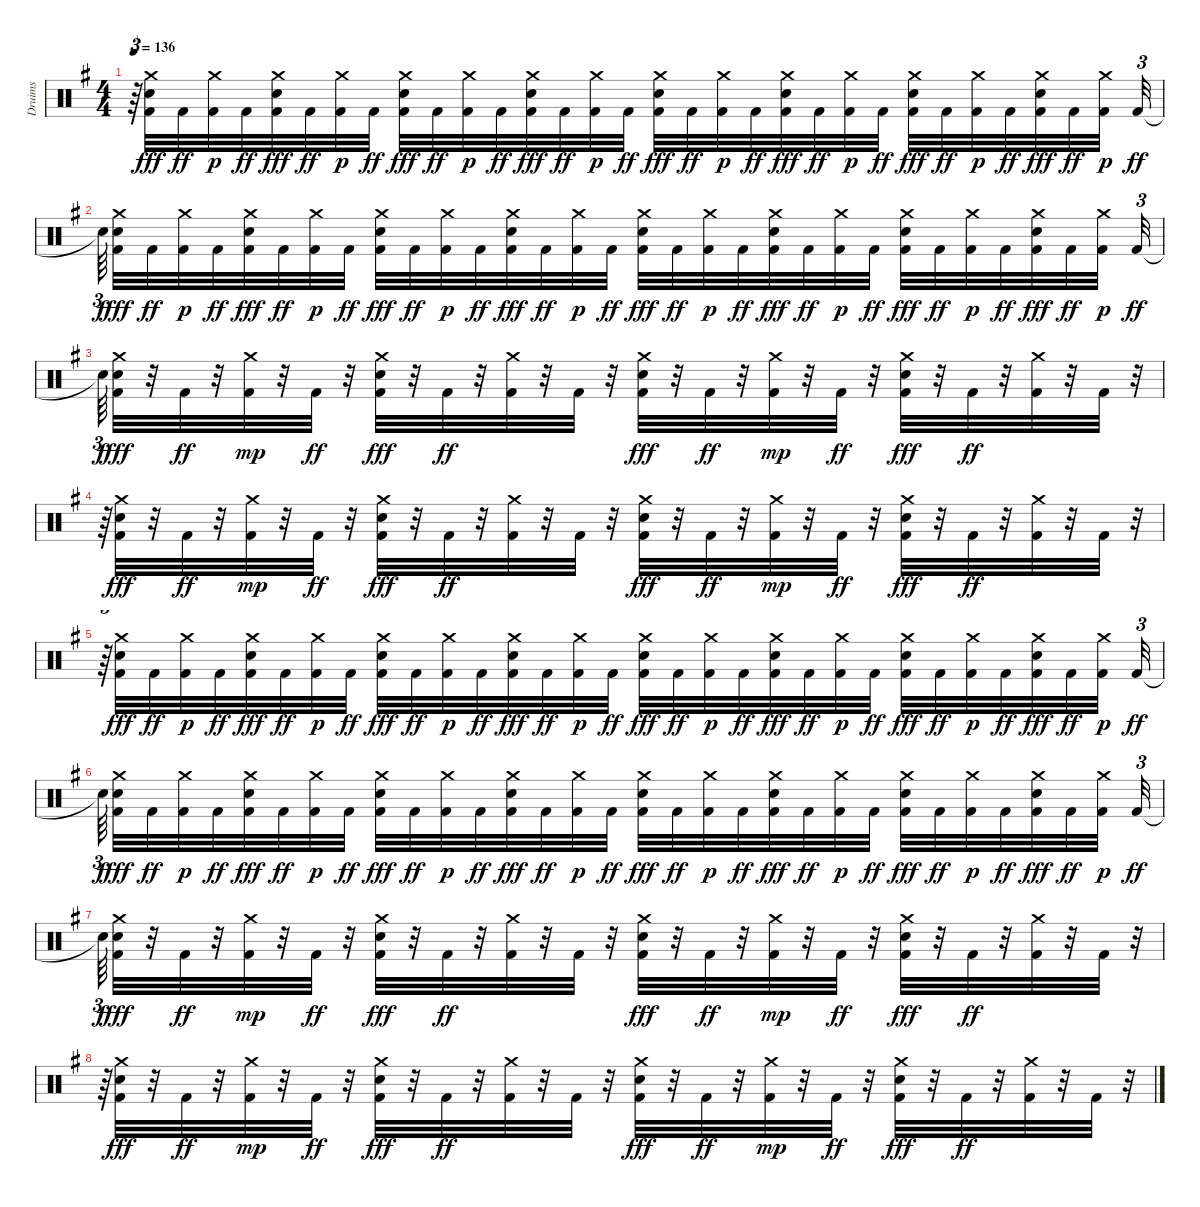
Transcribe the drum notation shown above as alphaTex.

\track ("Druims" "Druims") {instrument percussion}
\staff {score}
\articulation defaults
\ts (4 4)
\tempo 136
\clef neutral
\ks eminor
r.64{tu (3 2) dy fff} ("Kick (hit) 2" "Crash medium (hit)" "Snare (hit) 2").32 "Kick (hit) 2".32{dy ff} ("Kick (hit) 2" "Crash medium (hit)").32{dy p} "Kick (hit) 2".32{dy ff} ("Kick (hit) 2" "Snare (hit) 2" "Crash medium (hit)").32{dy fff} "Kick (hit) 2".32{dy ff} ("Kick (hit) 2" "Crash medium (hit)").32{dy p} "Kick (hit) 2".32{dy ff} ("Kick (hit) 2" "Snare (hit) 2" "Crash medium (hit)").32{dy fff} "Kick (hit) 2".32{dy ff} ("Kick (hit) 2" "Crash medium (hit)").32{dy p} "Kick (hit) 2".32{dy ff} ("Kick (hit) 2" "Snare (hit) 2" "Crash medium (hit)").32{dy fff} "Kick (hit) 2".32{dy ff} ("Kick (hit) 2" "Crash medium (hit)").32{dy p} "Kick (hit) 2".32{dy ff} ("Kick (hit) 2" "Snare (hit) 2" "Crash medium (hit)").32{dy fff} "Kick (hit) 2".32{dy ff} ("Kick (hit) 2" "Crash medium (hit)").32{dy p} "Kick (hit) 2".32{dy ff} ("Kick (hit) 2" "Crash medium (hit)" "Snare (hit) 2").32{dy fff} "Kick (hit) 2".32{dy ff} ("Kick (hit) 2" "Crash medium (hit)").32{dy p} "Kick (hit) 2".32{dy ff} ("Kick (hit) 2" "Snare (hit) 2" "Crash medium (hit)").32{dy fff} "Kick (hit) 2".32{dy ff} ("Kick (hit) 2" "Crash medium (hit)").32{dy p} "Kick (hit) 2".32{dy ff} ("Kick (hit) 2" "Snare (hit) 2" "Crash medium (hit)").32{dy fff} "Kick (hit) 2".32{dy ff} ("Kick (hit) 2" "Crash medium (hit)").32{dy p beam splitsecondary} "Kick (hit) 2".32{tu (3 2) dy ff} |
"Snare (hit)"{t}.64{tu (3 2) dy f beam splitsecondary} ("Kick (hit) 2" "Snare (hit) 2" "Crash medium (hit)").32{dy fff} "Kick (hit) 2".32{dy ff} ("Kick (hit) 2" "Crash medium (hit)").32{dy p} "Kick (hit) 2".32{dy ff} ("Kick (hit) 2" "Snare (hit) 2" "Crash medium (hit)").32{dy fff} "Kick (hit) 2".32{dy ff} ("Kick (hit) 2" "Crash medium (hit)").32{dy p} "Kick (hit) 2".32{dy ff} ("Kick (hit) 2" "Snare (hit) 2" "Crash medium (hit)").32{dy fff} "Kick (hit) 2".32{dy ff} ("Kick (hit) 2" "Crash medium (hit)").32{dy p} "Kick (hit) 2".32{dy ff} ("Kick (hit) 2" "Snare (hit) 2" "Crash medium (hit)").32{dy fff} "Kick (hit) 2".32{dy ff} ("Kick (hit) 2" "Crash medium (hit)").32{dy p} "Kick (hit) 2".32{dy ff} ("Kick (hit) 2" "Snare (hit) 2" "Crash medium (hit)").32{dy fff} "Kick (hit) 2".32{dy ff} ("Kick (hit) 2" "Crash medium (hit)").32{dy p} "Kick (hit) 2".32{dy ff} ("Kick (hit) 2" "Crash medium (hit)" "Snare (hit) 2").32{dy fff} "Kick (hit) 2".32{dy ff} ("Kick (hit) 2" "Crash medium (hit)").32{dy p} "Kick (hit) 2".32{dy ff} ("Kick (hit) 2" "Snare (hit) 2" "Crash medium (hit)").32{dy fff} "Kick (hit) 2".32{dy ff} ("Kick (hit) 2" "Crash medium (hit)").32{dy p} "Kick (hit) 2".32{dy ff} ("Kick (hit) 2" "Snare (hit) 2" "Crash medium (hit)").32{dy fff} "Kick (hit) 2".32{dy ff} ("Kick (hit) 2" "Crash medium (hit)").32{dy p beam splitsecondary} "Kick (hit) 2".32{tu (3 2) dy ff} |
"Snare (hit)"{t}.64{tu (3 2) dy f} ("Kick (hit) 2" "Crash medium (hit)" "Snare (hit) 2").32{dy fff} r.32 "Kick (hit) 2".32{dy ff} r.32 ("Kick (hit) 2" "Crash medium (hit)").32{dy mp} r.32 "Kick (hit) 2".32{dy ff} r.32 ("Kick (hit) 2" "Crash medium (hit)" "Snare (hit) 2").32{dy fff} r.32 "Kick (hit) 2".32{dy ff} r.32 ("Crash medium (hit)" "Kick (hit) 2").32 r.32 "Kick (hit) 2".32 r.32 ("Kick (hit) 2" "Crash medium (hit)" "Snare (hit) 2").32{dy fff} r.32 "Kick (hit) 2".32{dy ff} r.32 ("Kick (hit) 2" "Crash medium (hit)").32{dy mp} r.32 "Kick (hit) 2".32{dy ff} r.32 ("Kick (hit) 2" "Snare (hit) 2" "Crash medium (hit)").32{dy fff} r.32 "Kick (hit) 2".32{dy ff} r.32 ("Crash medium (hit)" "Kick (hit) 2").32 r.32 "Kick (hit) 2".32 r.32{tu (3 2)} |
r.64{tu (3 2)} ("Kick (hit) 2" "Crash medium (hit)" "Snare (hit) 2").32{dy fff} r.32 "Kick (hit) 2".32{dy ff} r.32 ("Kick (hit) 2" "Crash medium (hit)").32{dy mp} r.32 "Kick (hit) 2".32{dy ff} r.32 ("Kick (hit) 2" "Snare (hit) 2" "Crash medium (hit)").32{dy fff} r.32 "Kick (hit) 2".32{dy ff} r.32 ("Crash medium (hit)" "Kick (hit) 2").32 r.32 "Kick (hit) 2".32 r.32 ("Kick (hit) 2" "Crash medium (hit)" "Snare (hit) 2").32{dy fff} r.32 "Kick (hit) 2".32{dy ff} r.32 ("Kick (hit) 2" "Crash medium (hit)").32{dy mp} r.32 "Kick (hit) 2".32{dy ff} r.32 ("Kick (hit) 2" "Snare (hit) 2" "Crash medium (hit)").32{dy fff} r.32 "Kick (hit) 2".32{dy ff} r.32 ("Crash medium (hit)" "Kick (hit) 2").32 r.32 "Kick (hit) 2".32 r.32{tu (3 2)} |
r.64{tu (3 2)} ("Kick (hit) 2" "Crash medium (hit)" "Snare (hit) 2").32{dy fff} "Kick (hit) 2".32{dy ff} ("Kick (hit) 2" "Crash medium (hit)").32{dy p} "Kick (hit) 2".32{dy ff} ("Kick (hit) 2" "Snare (hit) 2" "Crash medium (hit)").32{dy fff} "Kick (hit) 2".32{dy ff} ("Kick (hit) 2" "Crash medium (hit)").32{dy p} "Kick (hit) 2".32{dy ff} ("Kick (hit) 2" "Snare (hit) 2" "Crash medium (hit)").32{dy fff} "Kick (hit) 2".32{dy ff} ("Kick (hit) 2" "Crash medium (hit)").32{dy p} "Kick (hit) 2".32{dy ff} ("Kick (hit) 2" "Snare (hit) 2" "Crash medium (hit)").32{dy fff} "Kick (hit) 2".32{dy ff} ("Kick (hit) 2" "Crash medium (hit)").32{dy p} "Kick (hit) 2".32{dy ff} ("Kick (hit) 2" "Snare (hit) 2" "Crash medium (hit)").32{dy fff} "Kick (hit) 2".32{dy ff} ("Kick (hit) 2" "Crash medium (hit)").32{dy p} "Kick (hit) 2".32{dy ff} ("Kick (hit) 2" "Crash medium (hit)" "Snare (hit) 2").32{dy fff} "Kick (hit) 2".32{dy ff} ("Kick (hit) 2" "Crash medium (hit)").32{dy p} "Kick (hit) 2".32{dy ff} ("Kick (hit) 2" "Snare (hit) 2" "Crash medium (hit)").32{dy fff} "Kick (hit) 2".32{dy ff} ("Kick (hit) 2" "Crash medium (hit)").32{dy p} "Kick (hit) 2".32{dy ff} ("Kick (hit) 2" "Snare (hit) 2" "Crash medium (hit)").32{dy fff} "Kick (hit) 2".32{dy ff} ("Kick (hit) 2" "Crash medium (hit)").32{dy p beam splitsecondary} "Kick (hit) 2".32{tu (3 2) dy ff} |
"Snare (hit)"{t}.64{tu (3 2) dy f beam splitsecondary} ("Kick (hit) 2" "Snare (hit) 2" "Crash medium (hit)").32{dy fff} "Kick (hit) 2".32{dy ff} ("Kick (hit) 2" "Crash medium (hit)").32{dy p} "Kick (hit) 2".32{dy ff} ("Kick (hit) 2" "Snare (hit) 2" "Crash medium (hit)").32{dy fff} "Kick (hit) 2".32{dy ff} ("Kick (hit) 2" "Crash medium (hit)").32{dy p} "Kick (hit) 2".32{dy ff} ("Kick (hit) 2" "Snare (hit) 2" "Crash medium (hit)").32{dy fff} "Kick (hit) 2".32{dy ff} ("Kick (hit) 2" "Crash medium (hit)").32{dy p} "Kick (hit) 2".32{dy ff} ("Kick (hit) 2" "Snare (hit) 2" "Crash medium (hit)").32{dy fff} "Kick (hit) 2".32{dy ff} ("Kick (hit) 2" "Crash medium (hit)").32{dy p} "Kick (hit) 2".32{dy ff} ("Kick (hit) 2" "Snare (hit) 2" "Crash medium (hit)").32{dy fff} "Kick (hit) 2".32{dy ff} ("Kick (hit) 2" "Crash medium (hit)").32{dy p} "Kick (hit) 2".32{dy ff} ("Kick (hit) 2" "Crash medium (hit)" "Snare (hit) 2").32{dy fff} "Kick (hit) 2".32{dy ff} ("Kick (hit) 2" "Crash medium (hit)").32{dy p} "Kick (hit) 2".32{dy ff} ("Kick (hit) 2" "Snare (hit) 2" "Crash medium (hit)").32{dy fff} "Kick (hit) 2".32{dy ff} ("Kick (hit) 2" "Crash medium (hit)").32{dy p} "Kick (hit) 2".32{dy ff} ("Kick (hit) 2" "Snare (hit) 2" "Crash medium (hit)").32{dy fff} "Kick (hit) 2".32{dy ff} ("Kick (hit) 2" "Crash medium (hit)").32{dy p beam splitsecondary} "Kick (hit) 2".32{tu (3 2) dy ff} |
"Snare (hit)"{t}.64{tu (3 2) dy f} ("Kick (hit) 2" "Crash medium (hit)" "Snare (hit) 2").32{dy fff} r.32 "Kick (hit) 2".32{dy ff} r.32 ("Kick (hit) 2" "Crash medium (hit)").32{dy mp} r.32 "Kick (hit) 2".32{dy ff} r.32 ("Kick (hit) 2" "Crash medium (hit)" "Snare (hit) 2").32{dy fff} r.32 "Kick (hit) 2".32{dy ff} r.32 ("Crash medium (hit)" "Kick (hit) 2").32 r.32 "Kick (hit) 2".32 r.32 ("Kick (hit) 2" "Crash medium (hit)" "Snare (hit) 2").32{dy fff} r.32 "Kick (hit) 2".32{dy ff} r.32 ("Kick (hit) 2" "Crash medium (hit)").32{dy mp} r.32 "Kick (hit) 2".32{dy ff} r.32 ("Kick (hit) 2" "Snare (hit) 2" "Crash medium (hit)").32{dy fff} r.32 "Kick (hit) 2".32{dy ff} r.32 ("Crash medium (hit)" "Kick (hit) 2").32 r.32 "Kick (hit) 2".32 r.32{tu (3 2)} |
r.64{tu (3 2)} ("Kick (hit) 2" "Crash medium (hit)" "Snare (hit) 2").32{dy fff} r.32 "Kick (hit) 2".32{dy ff} r.32 ("Kick (hit) 2" "Crash medium (hit)").32{dy mp} r.32 "Kick (hit) 2".32{dy ff} r.32 ("Kick (hit) 2" "Snare (hit) 2" "Crash medium (hit)").32{dy fff} r.32 "Kick (hit) 2".32{dy ff} r.32 ("Crash medium (hit)" "Kick (hit) 2").32 r.32 "Kick (hit) 2".32 r.32 ("Kick (hit) 2" "Crash medium (hit)" "Snare (hit) 2").32{dy fff} r.32 "Kick (hit) 2".32{dy ff} r.32 ("Kick (hit) 2" "Crash medium (hit)").32{dy mp} r.32 "Kick (hit) 2".32{dy ff} r.32 ("Kick (hit) 2" "Snare (hit) 2" "Crash medium (hit)").32{dy fff} r.32 "Kick (hit) 2".32{dy ff} r.32 ("Crash medium (hit)" "Kick (hit) 2").32 r.32 "Kick (hit) 2".32 r.32{tu (3 2)}
